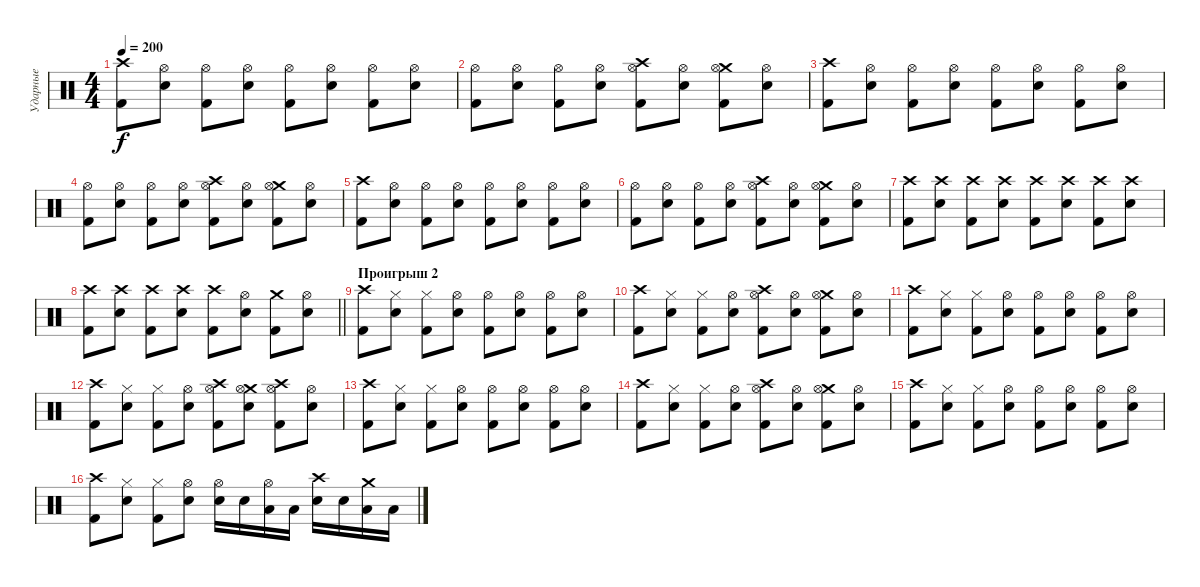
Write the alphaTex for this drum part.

\track ("Ударные" "Ударные") {instrument percussion}
\staff {score}
\articulation defaults
\ts (4 4)
\tempo 200
\clef neutral
\ks c
("Crash high (hit)" "Kick (hit) 2").8{dy f} ("Hi-Hat (open)" "Snare (hit) 2").8 ("Hi-Hat (open)" "Kick (hit) 2").8 ("Hi-Hat (open)" "Snare (hit) 2").8 ("Hi-Hat (open)" "Kick (hit) 2").8 ("Hi-Hat (open)" "Snare (hit) 2").8 ("Hi-Hat (open)" "Kick (hit) 2").8 ("Hi-Hat (open)" "Snare (hit) 2").8 |
("Hi-Hat (open)" "Kick (hit) 2").8 ("Hi-Hat (open)" "Snare (hit) 2").8 ("Hi-Hat (open)" "Kick (hit) 2").8 ("Hi-Hat (open)" "Snare (hit) 2").8 ("Crash high (hit)" "Hi-Hat (open)" "Kick (hit) 2").8 ("Hi-Hat (open)" "Snare (hit) 2").8 ("Crash medium (hit)" "Hi-Hat (open)" "Kick (hit) 2").8 ("Hi-Hat (open)" "Snare (hit) 2").8 |
("Crash high (hit)" "Kick (hit) 2").8 ("Hi-Hat (open)" "Snare (hit) 2").8 ("Hi-Hat (open)" "Kick (hit) 2").8 ("Hi-Hat (open)" "Snare (hit) 2").8 ("Hi-Hat (open)" "Kick (hit) 2").8 ("Hi-Hat (open)" "Snare (hit) 2").8 ("Hi-Hat (open)" "Kick (hit) 2").8 ("Hi-Hat (open)" "Snare (hit) 2").8 |
("Hi-Hat (open)" "Kick (hit) 2").8 ("Hi-Hat (open)" "Snare (hit) 2").8 ("Hi-Hat (open)" "Kick (hit) 2").8 ("Hi-Hat (open)" "Snare (hit) 2").8 ("Crash high (hit)" "Hi-Hat (open)" "Kick (hit) 2").8 ("Hi-Hat (open)" "Snare (hit) 2").8 ("Crash medium (hit)" "Hi-Hat (open)" "Kick (hit) 2").8 ("Hi-Hat (open)" "Snare (hit) 2").8 |
("Crash high (hit)" "Kick (hit) 2").8 ("Hi-Hat (open)" "Snare (hit) 2").8 ("Hi-Hat (open)" "Kick (hit) 2").8 ("Hi-Hat (open)" "Snare (hit) 2").8 ("Hi-Hat (open)" "Kick (hit) 2").8 ("Hi-Hat (open)" "Snare (hit) 2").8 ("Hi-Hat (open)" "Kick (hit) 2").8 ("Hi-Hat (open)" "Snare (hit) 2").8 |
("Hi-Hat (open)" "Kick (hit) 2").8 ("Hi-Hat (open)" "Snare (hit) 2").8 ("Hi-Hat (open)" "Kick (hit) 2").8 ("Hi-Hat (open)" "Snare (hit) 2").8 ("Crash high (hit)" "Hi-Hat (open)" "Kick (hit) 2").8 ("Hi-Hat (open)" "Snare (hit) 2").8 ("Crash medium (hit)" "Hi-Hat (open)" "Kick (hit) 2").8 ("Hi-Hat (open)" "Snare (hit) 2").8 |
("Crash high (hit)" "Kick (hit) 2").8 ("Crash high (hit)" "Snare (hit) 2").8 ("Crash high (hit)" "Kick (hit) 2").8 ("Crash high (hit)" "Snare (hit) 2").8 ("Crash high (hit)" "Kick (hit) 2").8 ("Crash high (hit)" "Snare (hit) 2").8 ("Crash high (hit)" "Kick (hit) 2").8 ("Crash high (hit)" "Snare (hit) 2").8 |
\barLineRight lightlight
("Crash high (hit)" "Kick (hit) 2").8 ("Crash high (hit)" "Snare (hit) 2").8 ("Crash high (hit)" "Kick (hit) 2").8 ("Crash high (hit)" "Snare (hit) 2").8 ("Crash high (hit)" "Kick (hit) 2").8 ("Hi-Hat (open)" "Snare (hit) 2").8 ("Crash medium (hit)" "Kick (hit) 2").8 ("Hi-Hat (open)" "Snare (hit) 2").8 |
\section ("" "Проигрыш 2")
("Crash high (hit)" "Kick (hit) 2").8 ("Hi-Hat (closed)" "Snare (hit) 2").8 ("Hi-Hat (closed)" "Kick (hit) 2").8 ("Hi-Hat (open)" "Snare (hit) 2").8 ("Hi-Hat (open)" "Kick (hit) 2").8 ("Hi-Hat (open)" "Snare (hit) 2").8 ("Hi-Hat (open)" "Kick (hit) 2").8 ("Hi-Hat (open)" "Snare (hit) 2").8 |
("Crash high (hit)" "Kick (hit) 2").8 ("Hi-Hat (closed)" "Snare (hit) 2").8 ("Hi-Hat (closed)" "Kick (hit) 2").8 ("Hi-Hat (open)" "Snare (hit) 2").8 ("Crash high (hit)" "Hi-Hat (open)" "Kick (hit) 2").8 ("Hi-Hat (open)" "Snare (hit) 2").8 ("Crash medium (hit)" "Hi-Hat (open)" "Kick (hit) 2").8 ("Hi-Hat (open)" "Snare (hit) 2").8 |
("Crash high (hit)" "Kick (hit) 2").8 ("Hi-Hat (closed)" "Snare (hit) 2").8 ("Hi-Hat (closed)" "Kick (hit) 2").8 ("Hi-Hat (open)" "Snare (hit) 2").8 ("Hi-Hat (open)" "Kick (hit) 2").8 ("Hi-Hat (open)" "Snare (hit) 2").8 ("Hi-Hat (open)" "Kick (hit) 2").8 ("Hi-Hat (open)" "Snare (hit) 2").8 |
("Crash high (hit)" "Kick (hit) 2").8 ("Hi-Hat (closed)" "Snare (hit) 2").8 ("Hi-Hat (closed)" "Kick (hit) 2").8 ("Hi-Hat (open)" "Snare (hit) 2").8 ("Crash high (hit)" "Hi-Hat (open)" "Kick (hit) 2").8 ("Crash medium (hit)" "Hi-Hat (open)" "Snare (hit) 2").8 ("Crash high (hit)" "Hi-Hat (open)" "Kick (hit) 2").8 ("Hi-Hat (open)" "Snare (hit) 2").8 |
("Crash high (hit)" "Kick (hit) 2").8 ("Hi-Hat (closed)" "Snare (hit) 2").8 ("Hi-Hat (closed)" "Kick (hit) 2").8 ("Hi-Hat (open)" "Snare (hit) 2").8 ("Hi-Hat (open)" "Kick (hit) 2").8 ("Hi-Hat (open)" "Snare (hit) 2").8 ("Hi-Hat (open)" "Kick (hit) 2").8 ("Hi-Hat (open)" "Snare (hit) 2").8 |
("Crash high (hit)" "Kick (hit) 2").8 ("Hi-Hat (closed)" "Snare (hit) 2").8 ("Hi-Hat (closed)" "Kick (hit) 2").8 ("Hi-Hat (open)" "Snare (hit) 2").8 ("Crash high (hit)" "Hi-Hat (open)" "Kick (hit) 2").8 ("Hi-Hat (open)" "Snare (hit) 2").8 ("Crash medium (hit)" "Hi-Hat (open)" "Kick (hit) 2").8 ("Hi-Hat (open)" "Snare (hit) 2").8 |
("Crash high (hit)" "Kick (hit) 2").8 ("Hi-Hat (closed)" "Snare (hit) 2").8 ("Hi-Hat (closed)" "Kick (hit) 2").8 ("Hi-Hat (open)" "Snare (hit) 2").8 ("Hi-Hat (open)" "Kick (hit) 2").8 ("Hi-Hat (open)" "Snare (hit) 2").8 ("Hi-Hat (open)" "Kick (hit) 2").8 ("Hi-Hat (open)" "Snare (hit) 2").8 |
("Crash high (hit)" "Kick (hit) 2").8 ("Hi-Hat (closed)" "Snare (hit) 2").8 ("Hi-Hat (closed)" "Kick (hit) 2").8 ("Hi-Hat (open)" "Snare (hit) 2").8 ("Hi-Hat (open)" "Snare (hit) 2").16 "Snare (hit) 2".16 ("Hi-Hat (open)" "Low Tom (hit)").16 "Low Tom (hit)".16 ("Crash high (hit)" "Snare (hit) 2").16 "Snare (hit) 2".16 ("Crash medium (hit)" "Low Tom (hit)").16 "Low Tom (hit)".16
